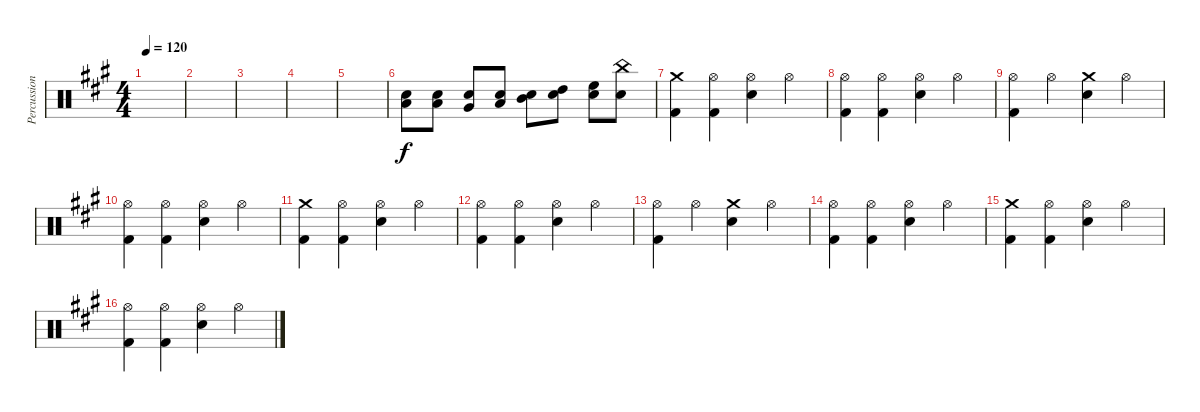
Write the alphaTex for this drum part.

\track ("Percussion" "Percussion") {instrument percussion}
\staff {score}
\articulation defaults
\ts (4 4)
\tempo 120
\clef neutral
\ks a
|
|
|
|
|
("Low Floor Tom (hit)" "Snare (hit) 2").8 ("Low Floor Tom (hit)" "Snare (hit) 2").8 ("Very Low Tom (hit)" "Snare (hit) 2").8 ("Low Tom (hit)" "Snare (hit) 2").8 ("Mid Tom (hit)" "Snare (hit) 2").8 ("High Tom (hit)" "Snare (hit) 2").8 ("High Floor Tom (hit)" "Snare (hit) 2").8 ("China (hit)" "Snare (hit) 2").8 |
("Crash medium (hit)" "Kick (hit) 2").4 ("Hi-Hat (open)" "Kick (hit) 2").4 ("Hi-Hat (open)" "Snare (hit) 2").4 "Hi-Hat (open)".4 |
("Hi-Hat (open)" "Kick (hit) 2").4 ("Hi-Hat (open)" "Kick (hit) 2").4 ("Hi-Hat (open)" "Snare (hit) 2").4 "Hi-Hat (open)".4 |
("Hi-Hat (open)" "Kick (hit) 2").4 "Hi-Hat (open)".4 ("Crash medium (hit)" "Snare (hit) 2").4 "Hi-Hat (open)".4 |
("Hi-Hat (open)" "Kick (hit) 2").4 ("Hi-Hat (open)" "Kick (hit) 2").4 ("Hi-Hat (open)" "Snare (hit) 2").4 "Hi-Hat (open)".4 |
("Crash medium (hit)" "Kick (hit) 2").4 ("Hi-Hat (open)" "Kick (hit) 2").4 ("Hi-Hat (open)" "Snare (hit) 2").4 "Hi-Hat (open)".4 |
("Hi-Hat (open)" "Kick (hit) 2").4 ("Hi-Hat (open)" "Kick (hit) 2").4 ("Hi-Hat (open)" "Snare (hit) 2").4 "Hi-Hat (open)".4 |
("Hi-Hat (open)" "Kick (hit) 2").4 "Hi-Hat (open)".4 ("Crash medium (hit)" "Snare (hit) 2").4 "Hi-Hat (open)".4 |
("Hi-Hat (open)" "Kick (hit) 2").4 ("Hi-Hat (open)" "Kick (hit) 2").4 ("Hi-Hat (open)" "Snare (hit) 2").4 "Hi-Hat (open)".4 |
("Crash medium (hit)" "Kick (hit) 2").4 ("Hi-Hat (open)" "Kick (hit) 2").4 ("Hi-Hat (open)" "Snare (hit) 2").4 "Hi-Hat (open)".4 |
("Hi-Hat (open)" "Kick (hit) 2").4 ("Hi-Hat (open)" "Kick (hit) 2").4 ("Hi-Hat (open)" "Snare (hit) 2").4 "Hi-Hat (open)".4
